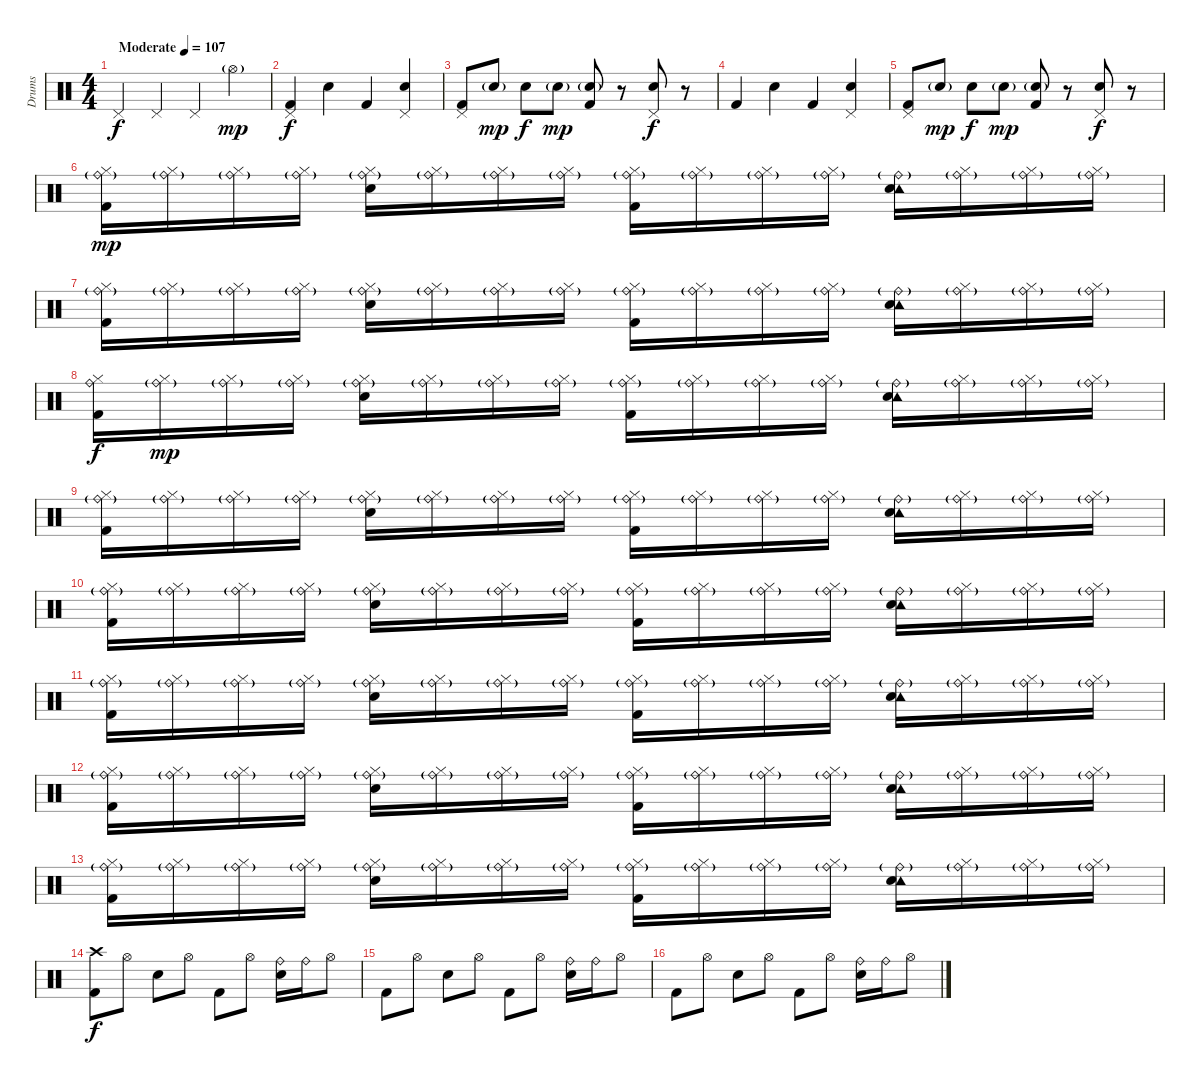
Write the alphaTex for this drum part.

\track ("Drums" "Drums") {instrument percussion}
\staff {score}
\articulation defaults
\ts (4 4)
\tempo (107 "Moderate")
\clef neutral
\ks c "Pedal Hi-Hat (hit)".4{dy f} "Pedal Hi-Hat (hit)".4 "Pedal Hi-Hat (hit)".4 "Hi-Hat (open)"{g}.4{dy mp}
|
("Pedal Hi-Hat (hit)" "Kick (hit) 2").4{dy f} "Snare (hit) 2".4 "Kick (hit) 2".4 ("Pedal Hi-Hat (hit)" "Snare (hit) 2").4 |
("Pedal Hi-Hat (hit)" "Kick (hit) 2").8 "Snare (hit) 2"{g}.8{dy mp} "Snare (hit) 2".8{dy f} "Snare (hit) 2"{g}.8{dy mp} ("Snare (hit) 2"{g} "Kick (hit) 2").8 r.8 ("Pedal Hi-Hat (hit)" "Snare (hit) 2").8{dy f} r.8 |
"Kick (hit) 2".4 "Snare (hit) 2".4 "Kick (hit) 2".4 ("Pedal Hi-Hat (hit)" "Snare (hit) 2").4 |
("Pedal Hi-Hat (hit)" "Kick (hit) 2").8 "Snare (hit) 2"{g}.8{dy mp} "Snare (hit) 2".8{dy f} "Snare (hit) 2"{g}.8{dy mp} ("Snare (hit) 2"{g} "Kick (hit) 2").8 r.8 ("Pedal Hi-Hat (hit)" "Snare (hit) 2").8{dy f} r.8 |
("Ride (bell)"{g} "Hi-Hat (closed)" "Kick (hit) 2").16{dy mp} ("Ride (bell)"{g} "Hi-Hat (closed)").16 ("Ride (bell)"{g} "Hi-Hat (closed)").16 ("Ride (bell)"{g} "Hi-Hat (closed)").16 ("Ride (bell)"{g} "Hi-Hat (closed)" "Snare (hit) 2").16 ("Ride (bell)"{g} "Hi-Hat (closed)").16 ("Ride (bell)"{g} "Hi-Hat (closed)").16 ("Ride (bell)"{g} "Hi-Hat (closed)").16 ("Ride (bell)"{g} "Hi-Hat (closed)" "Kick (hit) 2").16 ("Ride (bell)"{g} "Hi-Hat (closed)").16 ("Ride (bell)"{g} "Hi-Hat (closed)").16 ("Ride (bell)"{g} "Hi-Hat (closed)").16 ("Ride (bell)"{g} "Tambourine (hit)" "Snare (hit) 2").16 ("Ride (bell)"{g} "Hi-Hat (closed)").16 ("Ride (bell)"{g} "Hi-Hat (closed)").16 ("Ride (bell)"{g} "Hi-Hat (closed)").16 |
("Ride (bell)"{g} "Hi-Hat (closed)" "Kick (hit) 2").16 ("Ride (bell)"{g} "Hi-Hat (closed)").16 ("Ride (bell)"{g} "Hi-Hat (closed)").16 ("Ride (bell)"{g} "Hi-Hat (closed)").16 ("Ride (bell)"{g} "Hi-Hat (closed)" "Snare (hit) 2").16 ("Ride (bell)"{g} "Hi-Hat (closed)").16 ("Ride (bell)"{g} "Hi-Hat (closed)").16 ("Ride (bell)"{g} "Hi-Hat (closed)").16 ("Ride (bell)"{g} "Hi-Hat (closed)" "Kick (hit) 2").16 ("Ride (bell)"{g} "Hi-Hat (closed)").16 ("Ride (bell)"{g} "Hi-Hat (closed)").16 ("Ride (bell)"{g} "Hi-Hat (closed)").16 ("Ride (bell)"{g} "Tambourine (hit)" "Snare (hit) 2").16 ("Ride (bell)"{g} "Hi-Hat (closed)").16 ("Ride (bell)"{g} "Hi-Hat (closed)").16 ("Ride (bell)"{g} "Hi-Hat (closed)").16 |
("Ride (bell)" "Hi-Hat (closed)" "Kick (hit) 2").16{dy f} ("Ride (bell)"{g} "Hi-Hat (closed)").16{dy mp} ("Ride (bell)"{g} "Hi-Hat (closed)").16 ("Ride (bell)"{g} "Hi-Hat (closed)").16 ("Ride (bell)"{g} "Hi-Hat (closed)" "Snare (hit) 2").16 ("Ride (bell)"{g} "Hi-Hat (closed)").16 ("Ride (bell)"{g} "Hi-Hat (closed)").16 ("Ride (bell)"{g} "Hi-Hat (closed)").16 ("Ride (bell)"{g} "Hi-Hat (closed)" "Kick (hit) 2").16 ("Ride (bell)"{g} "Hi-Hat (closed)").16 ("Ride (bell)"{g} "Hi-Hat (closed)").16 ("Ride (bell)"{g} "Hi-Hat (closed)").16 ("Ride (bell)"{g} "Tambourine (hit)" "Snare (hit) 2").16 ("Ride (bell)"{g} "Hi-Hat (closed)").16 ("Ride (bell)"{g} "Hi-Hat (closed)").16 ("Ride (bell)"{g} "Hi-Hat (closed)").16 |
("Ride (bell)"{g} "Hi-Hat (closed)" "Kick (hit) 2").16 ("Ride (bell)"{g} "Hi-Hat (closed)").16 ("Ride (bell)"{g} "Hi-Hat (closed)").16 ("Ride (bell)"{g} "Hi-Hat (closed)").16 ("Ride (bell)"{g} "Hi-Hat (closed)" "Snare (hit) 2").16 ("Ride (bell)"{g} "Hi-Hat (closed)").16 ("Ride (bell)"{g} "Hi-Hat (closed)").16 ("Ride (bell)"{g} "Hi-Hat (closed)").16 ("Ride (bell)"{g} "Hi-Hat (closed)" "Kick (hit) 2").16 ("Ride (bell)"{g} "Hi-Hat (closed)").16 ("Ride (bell)"{g} "Hi-Hat (closed)").16 ("Ride (bell)"{g} "Hi-Hat (closed)").16 ("Ride (bell)"{g} "Tambourine (hit)" "Snare (hit) 2").16 ("Ride (bell)"{g} "Hi-Hat (closed)").16 ("Ride (bell)"{g} "Hi-Hat (closed)").16 ("Ride (bell)"{g} "Hi-Hat (closed)").16 |
("Ride (bell)"{g} "Hi-Hat (closed)" "Kick (hit) 2").16 ("Ride (bell)"{g} "Hi-Hat (closed)").16 ("Ride (bell)"{g} "Hi-Hat (closed)").16 ("Ride (bell)"{g} "Hi-Hat (closed)").16 ("Ride (bell)"{g} "Hi-Hat (closed)" "Snare (hit) 2").16 ("Ride (bell)"{g} "Hi-Hat (closed)").16 ("Ride (bell)"{g} "Hi-Hat (closed)").16 ("Ride (bell)"{g} "Hi-Hat (closed)").16 ("Ride (bell)"{g} "Hi-Hat (closed)" "Kick (hit) 2").16 ("Ride (bell)"{g} "Hi-Hat (closed)").16 ("Ride (bell)"{g} "Hi-Hat (closed)").16 ("Ride (bell)"{g} "Hi-Hat (closed)").16 ("Ride (bell)"{g} "Tambourine (hit)" "Snare (hit) 2").16 ("Ride (bell)"{g} "Hi-Hat (closed)").16 ("Ride (bell)"{g} "Hi-Hat (closed)").16 ("Ride (bell)"{g} "Hi-Hat (closed)").16 |
("Ride (bell)"{g} "Hi-Hat (closed)" "Kick (hit) 2").16 ("Ride (bell)"{g} "Hi-Hat (closed)").16 ("Ride (bell)"{g} "Hi-Hat (closed)").16 ("Ride (bell)"{g} "Hi-Hat (closed)").16 ("Ride (bell)"{g} "Hi-Hat (closed)" "Snare (hit) 2").16 ("Ride (bell)"{g} "Hi-Hat (closed)").16 ("Ride (bell)"{g} "Hi-Hat (closed)").16 ("Ride (bell)"{g} "Hi-Hat (closed)").16 ("Ride (bell)"{g} "Hi-Hat (closed)" "Kick (hit) 2").16 ("Ride (bell)"{g} "Hi-Hat (closed)").16 ("Ride (bell)"{g} "Hi-Hat (closed)").16 ("Ride (bell)"{g} "Hi-Hat (closed)").16 ("Ride (bell)"{g} "Tambourine (hit)" "Snare (hit) 2").16 ("Ride (bell)"{g} "Hi-Hat (closed)").16 ("Ride (bell)"{g} "Hi-Hat (closed)").16 ("Ride (bell)"{g} "Hi-Hat (closed)").16 |
("Ride (bell)"{g} "Hi-Hat (closed)" "Kick (hit) 2").16 ("Ride (bell)"{g} "Hi-Hat (closed)").16 ("Ride (bell)"{g} "Hi-Hat (closed)").16 ("Ride (bell)"{g} "Hi-Hat (closed)").16 ("Ride (bell)"{g} "Hi-Hat (closed)" "Snare (hit) 2").16 ("Ride (bell)"{g} "Hi-Hat (closed)").16 ("Ride (bell)"{g} "Hi-Hat (closed)").16 ("Ride (bell)"{g} "Hi-Hat (closed)").16 ("Ride (bell)"{g} "Hi-Hat (closed)" "Kick (hit) 2").16 ("Ride (bell)"{g} "Hi-Hat (closed)").16 ("Ride (bell)"{g} "Hi-Hat (closed)").16 ("Ride (bell)"{g} "Hi-Hat (closed)").16 ("Ride (bell)"{g} "Tambourine (hit)" "Snare (hit) 2").16 ("Ride (bell)"{g} "Hi-Hat (closed)").16 ("Ride (bell)"{g} "Hi-Hat (closed)").16 ("Ride (bell)"{g} "Hi-Hat (closed)").16 |
("Ride (bell)"{g} "Hi-Hat (closed)" "Kick (hit) 2").16 ("Ride (bell)"{g} "Hi-Hat (closed)").16 ("Ride (bell)"{g} "Hi-Hat (closed)").16 ("Ride (bell)"{g} "Hi-Hat (closed)").16 ("Ride (bell)"{g} "Hi-Hat (closed)" "Snare (hit) 2").16 ("Ride (bell)"{g} "Hi-Hat (closed)").16 ("Ride (bell)"{g} "Hi-Hat (closed)").16 ("Ride (bell)"{g} "Hi-Hat (closed)").16 ("Ride (bell)"{g} "Hi-Hat (closed)" "Kick (hit) 2").16 ("Ride (bell)"{g} "Hi-Hat (closed)").16 ("Ride (bell)"{g} "Hi-Hat (closed)").16 ("Ride (bell)"{g} "Hi-Hat (closed)").16 ("Ride (bell)"{g} "Tambourine (hit)" "Snare (hit) 2").16 ("Ride (bell)"{g} "Hi-Hat (closed)").16 ("Ride (bell)"{g} "Hi-Hat (closed)").16 ("Ride (bell)"{g} "Hi-Hat (closed)").16 |
("Kick (hit) 2" "Crash high (hit)").8{dy f} "Hi-Hat (open)".8 "Snare (hit) 2".8 "Hi-Hat (open)".8 "Kick (hit) 2".8 "Hi-Hat (open)".8 ("Snare (hit) 2" "Ride (bell)").16 "Ride (bell)".16 "Hi-Hat (open)".8 |
"Kick (hit) 2".8 "Hi-Hat (open)".8 "Snare (hit) 2".8 "Hi-Hat (open)".8 "Kick (hit) 2".8 "Hi-Hat (open)".8 ("Snare (hit) 2" "Ride (bell)").16 "Ride (bell)".16 "Hi-Hat (open)".8 |
"Kick (hit) 2".8 "Hi-Hat (open)".8 "Snare (hit) 2".8 "Hi-Hat (open)".8 "Kick (hit) 2".8 "Hi-Hat (open)".8 ("Snare (hit) 2" "Ride (bell)").16 "Ride (bell)".16 "Hi-Hat (open)".8
